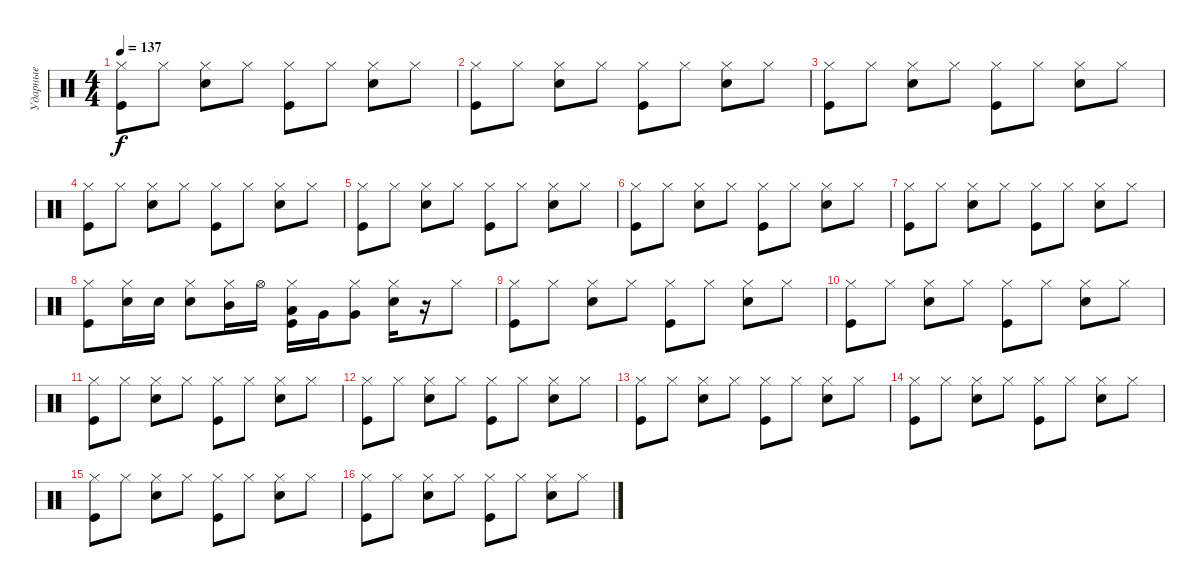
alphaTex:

\track ("Ударные" "Ударные") {instrument percussion}
\staff {score}
\articulation defaults
\ts (4 4)
\tempo 137
\clef neutral
\ks c
("Hi-Hat (closed)" "Kick (hit)").8{dy f} "Hi-Hat (closed)".8 ("Hi-Hat (closed)" "Snare (hit) 2").8 "Hi-Hat (closed)".8 ("Hi-Hat (closed)" "Kick (hit)").8 "Hi-Hat (closed)".8 ("Hi-Hat (closed)" "Snare (hit) 2").8 "Hi-Hat (closed)".8 |
("Hi-Hat (closed)" "Kick (hit)").8 "Hi-Hat (closed)".8 ("Hi-Hat (closed)" "Snare (hit) 2").8 "Hi-Hat (closed)".8 ("Hi-Hat (closed)" "Kick (hit)").8 "Hi-Hat (closed)".8 ("Hi-Hat (closed)" "Snare (hit) 2").8 "Hi-Hat (closed)".8 |
("Hi-Hat (closed)" "Kick (hit)").8 "Hi-Hat (closed)".8 ("Hi-Hat (closed)" "Snare (hit) 2").8 "Hi-Hat (closed)".8 ("Hi-Hat (closed)" "Kick (hit)").8 "Hi-Hat (closed)".8 ("Hi-Hat (closed)" "Snare (hit) 2").8 "Hi-Hat (closed)".8 |
("Hi-Hat (closed)" "Kick (hit)").8 "Hi-Hat (closed)".8 ("Hi-Hat (closed)" "Snare (hit) 2").8 "Hi-Hat (closed)".8 ("Hi-Hat (closed)" "Kick (hit)").8 "Hi-Hat (closed)".8 ("Hi-Hat (closed)" "Snare (hit) 2").8 "Hi-Hat (closed)".8 |
("Hi-Hat (closed)" "Kick (hit)").8 "Hi-Hat (closed)".8 ("Hi-Hat (closed)" "Snare (hit) 2").8 "Hi-Hat (closed)".8 ("Hi-Hat (closed)" "Kick (hit)").8 "Hi-Hat (closed)".8 ("Hi-Hat (closed)" "Snare (hit) 2").8 "Hi-Hat (closed)".8 |
("Hi-Hat (closed)" "Kick (hit)").8 "Hi-Hat (closed)".8 ("Hi-Hat (closed)" "Snare (hit) 2").8 "Hi-Hat (closed)".8 ("Hi-Hat (closed)" "Kick (hit)").8 "Hi-Hat (closed)".8 ("Hi-Hat (closed)" "Snare (hit) 2").8 "Hi-Hat (closed)".8 |
("Hi-Hat (closed)" "Kick (hit)").8 "Hi-Hat (closed)".8 ("Hi-Hat (closed)" "Snare (hit) 2").8 "Hi-Hat (closed)".8 ("Hi-Hat (closed)" "Kick (hit)").8 "Hi-Hat (closed)".8 ("Hi-Hat (closed)" "Snare (hit) 2").8 "Hi-Hat (closed)".8 |
("Hi-Hat (closed)" "Kick (hit)").8 ("Hi-Hat (closed)" "Snare (hit) 2").16 "Snare (hit) 2".16 ("Hi-Hat (closed)" "Snare (hit) 2").8 ("Hi-Hat (closed)" "Mid Tom (hit)").16 "Hi-Hat (open)".16 ("Hi-Hat (closed)" "Low Tom (hit)" "Kick (hit)").16 "Very Low Tom (hit)".16 ("Very Low Tom (hit)" "Hi-Hat (closed)").8 ("Hi-Hat (closed)" "Snare (hit) 2").16 r.16 "Hi-Hat (closed)".8 |
("Hi-Hat (closed)" "Kick (hit)").8 "Hi-Hat (closed)".8 ("Hi-Hat (closed)" "Snare (hit) 2").8 "Hi-Hat (closed)".8 ("Hi-Hat (closed)" "Kick (hit)").8 "Hi-Hat (closed)".8 ("Hi-Hat (closed)" "Snare (hit) 2").8 "Hi-Hat (closed)".8 |
("Hi-Hat (closed)" "Kick (hit)").8 "Hi-Hat (closed)".8 ("Hi-Hat (closed)" "Snare (hit) 2").8 "Hi-Hat (closed)".8 ("Hi-Hat (closed)" "Kick (hit)").8 "Hi-Hat (closed)".8 ("Hi-Hat (closed)" "Snare (hit) 2").8 "Hi-Hat (closed)".8 |
("Hi-Hat (closed)" "Kick (hit)").8 "Hi-Hat (closed)".8 ("Hi-Hat (closed)" "Snare (hit) 2").8 "Hi-Hat (closed)".8 ("Hi-Hat (closed)" "Kick (hit)").8 "Hi-Hat (closed)".8 ("Hi-Hat (closed)" "Snare (hit) 2").8 "Hi-Hat (closed)".8 |
("Hi-Hat (closed)" "Kick (hit)").8 "Hi-Hat (closed)".8 ("Hi-Hat (closed)" "Snare (hit) 2").8 "Hi-Hat (closed)".8 ("Hi-Hat (closed)" "Kick (hit)").8 "Hi-Hat (closed)".8 ("Hi-Hat (closed)" "Snare (hit) 2").8 "Hi-Hat (closed)".8 |
("Hi-Hat (closed)" "Kick (hit)").8 "Hi-Hat (closed)".8 ("Hi-Hat (closed)" "Snare (hit) 2").8 "Hi-Hat (closed)".8 ("Hi-Hat (closed)" "Kick (hit)").8 "Hi-Hat (closed)".8 ("Hi-Hat (closed)" "Snare (hit) 2").8 "Hi-Hat (closed)".8 |
("Hi-Hat (closed)" "Kick (hit)").8 "Hi-Hat (closed)".8 ("Hi-Hat (closed)" "Snare (hit) 2").8 "Hi-Hat (closed)".8 ("Hi-Hat (closed)" "Kick (hit)").8 "Hi-Hat (closed)".8 ("Hi-Hat (closed)" "Snare (hit) 2").8 "Hi-Hat (closed)".8 |
("Hi-Hat (closed)" "Kick (hit)").8 "Hi-Hat (closed)".8 ("Hi-Hat (closed)" "Snare (hit) 2").8 "Hi-Hat (closed)".8 ("Hi-Hat (closed)" "Kick (hit)").8 "Hi-Hat (closed)".8 ("Hi-Hat (closed)" "Snare (hit) 2").8 "Hi-Hat (closed)".8 |
("Hi-Hat (closed)" "Kick (hit)").8 "Hi-Hat (closed)".8 ("Hi-Hat (closed)" "Snare (hit) 2").8 "Hi-Hat (closed)".8 ("Hi-Hat (closed)" "Kick (hit)").8 "Hi-Hat (closed)".8 ("Hi-Hat (closed)" "Snare (hit) 2").8 "Hi-Hat (closed)".8
